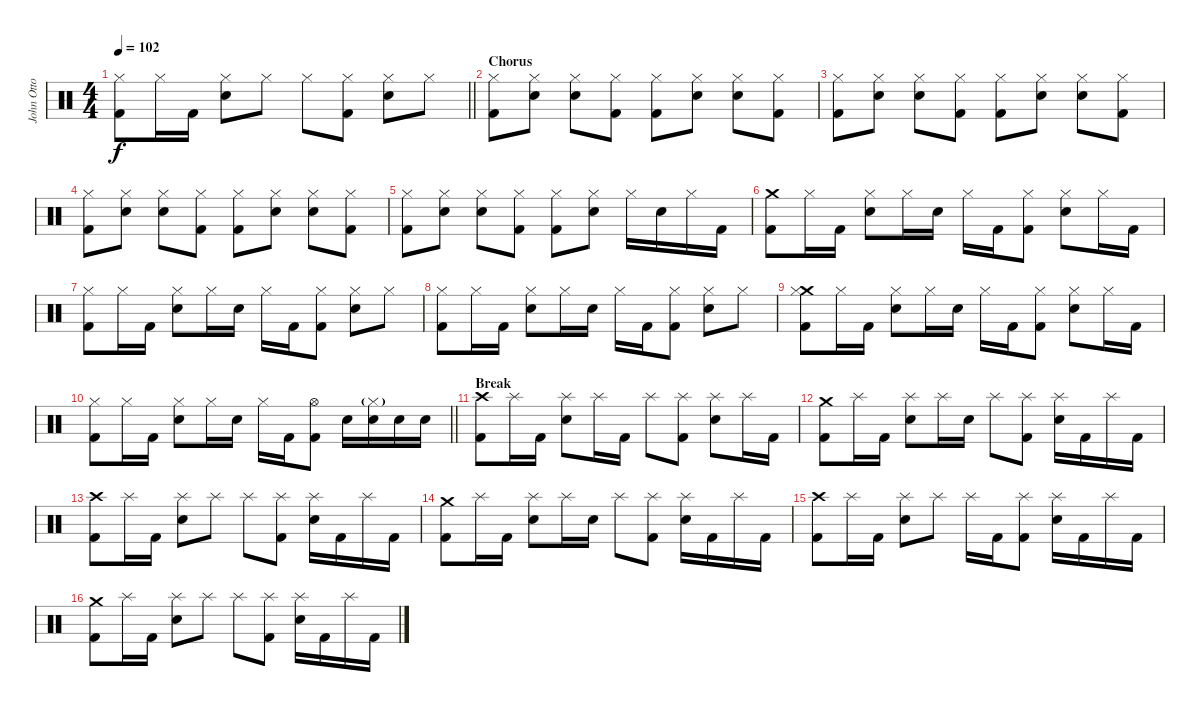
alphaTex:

\track ("John Otto (Drums)" "John Otto ") {instrument percussion}
\staff {score}
\articulation defaults
\ts (4 4)
\tempo 102
\clef neutral
\barLineRight lightlight
\ks c
("Hi-Hat (closed)" "Kick (hit) 2").8{dy f} "Hi-Hat (closed)".16 "Kick (hit) 2".16 ("Hi-Hat (closed)" "Snare (hit) 2").8 "Hi-Hat (closed)".8 "Hi-Hat (closed)".8 ("Hi-Hat (closed)" "Kick (hit) 2").8 ("Hi-Hat (closed)" "Snare (hit) 2").8 "Hi-Hat (closed)".8 |
\section ("" "Chorus")
("Hi-Hat (closed)" "Kick (hit) 2").8 ("Hi-Hat (closed)" "Snare (hit) 2").8 ("Hi-Hat (closed)" "Snare (hit) 2").8 ("Hi-Hat (closed)" "Kick (hit) 2").8 ("Hi-Hat (closed)" "Kick (hit) 2").8 ("Hi-Hat (closed)" "Snare (hit) 2").8 ("Hi-Hat (closed)" "Snare (hit) 2").8 ("Hi-Hat (closed)" "Kick (hit) 2").8 |
("Hi-Hat (closed)" "Kick (hit) 2").8 ("Hi-Hat (closed)" "Snare (hit) 2").8 ("Hi-Hat (closed)" "Snare (hit) 2").8 ("Hi-Hat (closed)" "Kick (hit) 2").8 ("Hi-Hat (closed)" "Kick (hit) 2").8 ("Hi-Hat (closed)" "Snare (hit) 2").8 ("Hi-Hat (closed)" "Snare (hit) 2").8 ("Hi-Hat (closed)" "Kick (hit) 2").8 |
("Hi-Hat (closed)" "Kick (hit) 2").8 ("Hi-Hat (closed)" "Snare (hit) 2").8 ("Hi-Hat (closed)" "Snare (hit) 2").8 ("Hi-Hat (closed)" "Kick (hit) 2").8 ("Hi-Hat (closed)" "Kick (hit) 2").8 ("Hi-Hat (closed)" "Snare (hit) 2").8 ("Hi-Hat (closed)" "Snare (hit) 2").8 ("Hi-Hat (closed)" "Kick (hit) 2").8 |
("Hi-Hat (closed)" "Kick (hit) 2").8 ("Hi-Hat (closed)" "Snare (hit) 2").8 ("Hi-Hat (closed)" "Snare (hit) 2").8 ("Hi-Hat (closed)" "Kick (hit) 2").8 ("Hi-Hat (closed)" "Kick (hit) 2").8 ("Hi-Hat (closed)" "Snare (hit) 2").8 "Hi-Hat (closed)".16 "Snare (hit) 2".16 "Hi-Hat (closed)".16 "Kick (hit) 2".16 |
("Crash medium (hit)" "Kick (hit) 2").8 "Hi-Hat (closed)".16 "Kick (hit) 2".16 ("Hi-Hat (closed)" "Snare (hit) 2").8 "Hi-Hat (closed)".16 "Snare (hit) 2".16 "Hi-Hat (closed)".16 "Kick (hit) 2".16 ("Hi-Hat (closed)" "Kick (hit) 2").8 ("Hi-Hat (closed)" "Snare (hit) 2").8 "Hi-Hat (closed)".16 "Kick (hit) 2".16 |
("Hi-Hat (closed)" "Kick (hit) 2").8 "Hi-Hat (closed)".16 "Kick (hit) 2".16 ("Hi-Hat (closed)" "Snare (hit) 2").8 "Hi-Hat (closed)".16 "Snare (hit) 2".16 "Hi-Hat (closed)".16 "Kick (hit) 2".16 ("Hi-Hat (closed)" "Kick (hit) 2").8 ("Hi-Hat (closed)" "Snare (hit) 2").8 "Hi-Hat (closed)".8 |
("Hi-Hat (closed)" "Kick (hit) 2").8 "Hi-Hat (closed)".16 "Kick (hit) 2".16 ("Hi-Hat (closed)" "Snare (hit) 2").8 "Hi-Hat (closed)".16 "Snare (hit) 2".16 "Hi-Hat (closed)".16 "Kick (hit) 2".16 ("Hi-Hat (closed)" "Kick (hit) 2").8 ("Hi-Hat (closed)" "Snare (hit) 2").8 "Hi-Hat (closed)".8 |
("Crash medium (hit)" "Hi-Hat (closed)" "Kick (hit) 2").8 "Hi-Hat (closed)".16 "Kick (hit) 2".16 ("Hi-Hat (closed)" "Snare (hit) 2").8 "Hi-Hat (closed)".16 "Snare (hit) 2".16 "Hi-Hat (closed)".16 "Kick (hit) 2".16 ("Hi-Hat (closed)" "Kick (hit) 2").8 ("Hi-Hat (closed)" "Snare (hit) 2").8 "Hi-Hat (closed)".16 "Kick (hit) 2".16 |
\barLineRight lightlight
("Hi-Hat (closed)" "Kick (hit) 2").8 "Hi-Hat (closed)".16 "Kick (hit) 2".16 ("Hi-Hat (closed)" "Snare (hit) 2").8 "Hi-Hat (closed)".16 "Snare (hit) 2".16 "Hi-Hat (closed)".16 "Kick (hit) 2".16 ("Hi-Hat (open)" "Kick (hit) 2").8 "Snare (hit) 2".16 ("Hi-Hat (closed)"{g} "Snare (hit) 2").16 "Snare (hit) 2".16 "Snare (hit) 2".16 |
\section ("" "Break")
("Crash high (hit)" "Kick (hit) 2").8 "Splash (hit)".16 "Kick (hit) 2".16 ("Splash (hit)" "Snare (hit) 2").8 "Splash (hit)".16 "Kick (hit) 2".16 "Splash (hit)".8 ("Splash (hit)" "Kick (hit) 2").8 ("Splash (hit)" "Snare (hit) 2").8 "Splash (hit)".16 "Kick (hit) 2".16 |
("Crash medium (hit)" "Kick (hit) 2").8 "Splash (hit)".16 "Kick (hit) 2".16 ("Splash (hit)" "Snare (hit) 2").8 "Splash (hit)".16 "Snare (hit) 2".16 "Splash (hit)".8 ("Splash (hit)" "Kick (hit) 2").8 ("Splash (hit)" "Snare (hit) 2").16 "Kick (hit) 2".16 "Splash (hit)".16 "Kick (hit) 2".16 |
("Crash high (hit)" "Kick (hit) 2").8 "Splash (hit)".16 "Kick (hit) 2".16 ("Splash (hit)" "Snare (hit) 2").8 "Splash (hit)".8 "Splash (hit)".8 ("Splash (hit)" "Kick (hit) 2").8 ("Splash (hit)" "Snare (hit) 2").16 "Kick (hit) 2".16 "Splash (hit)".16 "Kick (hit) 2".16 |
("Crash medium (hit)" "Kick (hit) 2").8 "Splash (hit)".16 "Kick (hit) 2".16 ("Splash (hit)" "Snare (hit) 2").8 "Splash (hit)".16 "Snare (hit) 2".16 "Splash (hit)".8 ("Splash (hit)" "Kick (hit) 2").8 ("Splash (hit)" "Snare (hit) 2").16 "Kick (hit) 2".16 "Splash (hit)".16 "Kick (hit) 2".16 |
("Crash high (hit)" "Kick (hit) 2").8 "Splash (hit)".16 "Kick (hit) 2".16 ("Splash (hit)" "Snare (hit) 2").8 "Splash (hit)".8 "Splash (hit)".16 "Kick (hit) 2".16 ("Splash (hit)" "Kick (hit) 2").8 ("Splash (hit)" "Snare (hit) 2").16 "Kick (hit) 2".16 "Splash (hit)".16 "Kick (hit) 2".16 |
("Crash medium (hit)" "Kick (hit) 2").8 "Splash (hit)".16 "Kick (hit) 2".16 ("Splash (hit)" "Snare (hit) 2").8 "Splash (hit)".8 "Splash (hit)".8 ("Splash (hit)" "Kick (hit) 2").8 ("Splash (hit)" "Snare (hit) 2").16 "Kick (hit) 2".16 "Splash (hit)".16 "Kick (hit) 2".16
